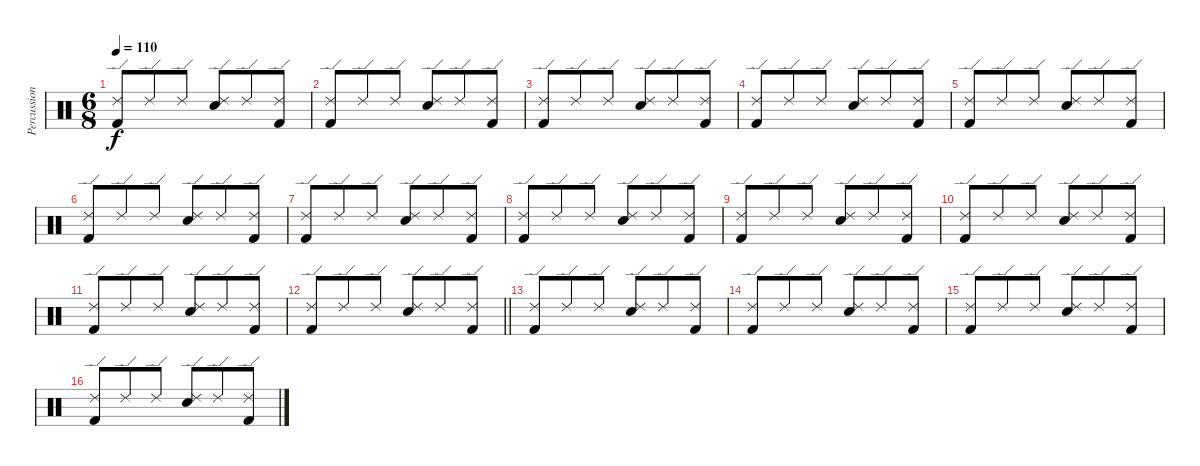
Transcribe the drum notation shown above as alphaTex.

\track ("Percussion" "Percussion") {instrument percussion}
\staff {score}
\articulation defaults
\ts (6 8)
\tempo 110
\clef neutral
\ks c
("Ride (edge) 2" "Kick (hit) 2").8{dy f} "Ride (edge) 2".8 "Ride (edge) 2".8 ("Ride (edge) 2" "Snare (hit) 2").8 "Ride (edge) 2".8 ("Ride (edge) 2" "Kick (hit) 2").8 |
("Ride (edge) 2" "Kick (hit) 2").8 "Ride (edge) 2".8 "Ride (edge) 2".8 ("Ride (edge) 2" "Snare (hit) 2").8 "Ride (edge) 2".8 ("Ride (edge) 2" "Kick (hit) 2").8 |
("Ride (edge) 2" "Kick (hit) 2").8 "Ride (edge) 2".8 "Ride (edge) 2".8 ("Ride (edge) 2" "Snare (hit) 2").8 "Ride (edge) 2".8 ("Ride (edge) 2" "Kick (hit) 2").8 |
("Ride (edge) 2" "Kick (hit) 2").8 "Ride (edge) 2".8 "Ride (edge) 2".8 ("Ride (edge) 2" "Snare (hit) 2").8 "Ride (edge) 2".8 ("Ride (edge) 2" "Kick (hit) 2").8 |
("Ride (edge) 2" "Kick (hit) 2").8 "Ride (edge) 2".8 "Ride (edge) 2".8 ("Ride (edge) 2" "Snare (hit) 2").8 "Ride (edge) 2".8 ("Ride (edge) 2" "Kick (hit) 2").8 |
("Ride (edge) 2" "Kick (hit) 2").8 "Ride (edge) 2".8 "Ride (edge) 2".8 ("Ride (edge) 2" "Snare (hit) 2").8 "Ride (edge) 2".8 ("Ride (edge) 2" "Kick (hit) 2").8 |
("Ride (edge) 2" "Kick (hit) 2").8 "Ride (edge) 2".8 "Ride (edge) 2".8 ("Ride (edge) 2" "Snare (hit) 2").8 "Ride (edge) 2".8 ("Ride (edge) 2" "Kick (hit) 2").8 |
("Ride (edge) 2" "Kick (hit) 2").8 "Ride (edge) 2".8 "Ride (edge) 2".8 ("Ride (edge) 2" "Snare (hit) 2").8 "Ride (edge) 2".8 ("Ride (edge) 2" "Kick (hit) 2").8 |
("Ride (edge) 2" "Kick (hit) 2").8 "Ride (edge) 2".8 "Ride (edge) 2".8 ("Ride (edge) 2" "Snare (hit) 2").8 "Ride (edge) 2".8 ("Ride (edge) 2" "Kick (hit) 2").8 |
("Ride (edge) 2" "Kick (hit) 2").8 "Ride (edge) 2".8 "Ride (edge) 2".8 ("Ride (edge) 2" "Snare (hit) 2").8 "Ride (edge) 2".8 ("Ride (edge) 2" "Kick (hit) 2").8 |
("Ride (edge) 2" "Kick (hit) 2").8 "Ride (edge) 2".8 "Ride (edge) 2".8 ("Ride (edge) 2" "Snare (hit) 2").8 "Ride (edge) 2".8 ("Ride (edge) 2" "Kick (hit) 2").8 |
\barLineRight lightlight
("Ride (edge) 2" "Kick (hit) 2").8 "Ride (edge) 2".8 "Ride (edge) 2".8 ("Ride (edge) 2" "Snare (hit) 2").8 "Ride (edge) 2".8 ("Ride (edge) 2" "Kick (hit) 2").8 |
("Ride (edge) 2" "Kick (hit) 2").8 "Ride (edge) 2".8 "Ride (edge) 2".8 ("Ride (edge) 2" "Snare (hit) 2").8 "Ride (edge) 2".8 ("Ride (edge) 2" "Kick (hit) 2").8 |
("Ride (edge) 2" "Kick (hit) 2").8 "Ride (edge) 2".8 "Ride (edge) 2".8 ("Ride (edge) 2" "Snare (hit) 2").8 "Ride (edge) 2".8 ("Ride (edge) 2" "Kick (hit) 2").8 |
("Ride (edge) 2" "Kick (hit) 2").8 "Ride (edge) 2".8 "Ride (edge) 2".8 ("Ride (edge) 2" "Snare (hit) 2").8 "Ride (edge) 2".8 ("Ride (edge) 2" "Kick (hit) 2").8 |
("Ride (edge) 2" "Kick (hit) 2").8 "Ride (edge) 2".8 "Ride (edge) 2".8 ("Ride (edge) 2" "Snare (hit) 2").8 "Ride (edge) 2".8 ("Ride (edge) 2" "Kick (hit) 2").8
